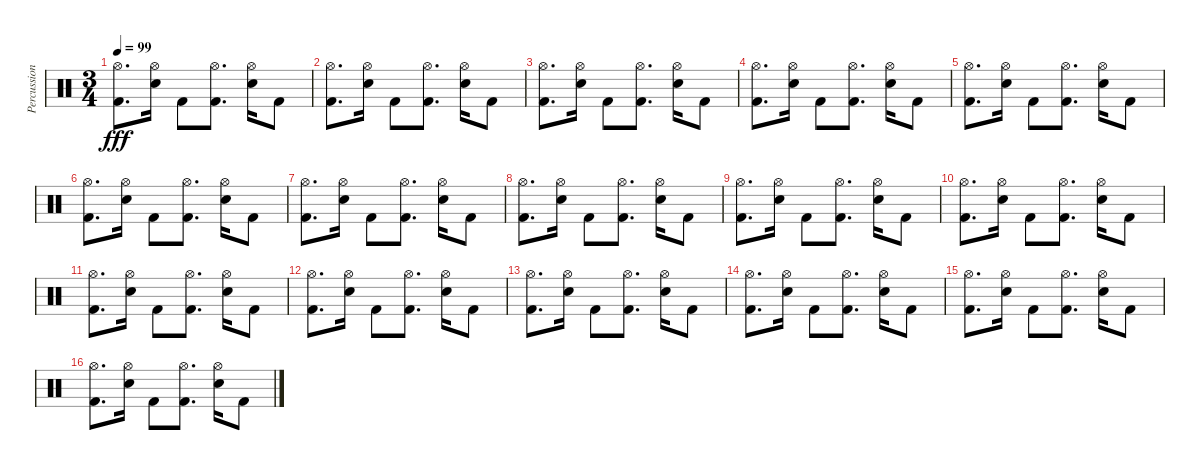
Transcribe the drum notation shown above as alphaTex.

\track ("Percussion" "Percussion") {instrument percussion}
\staff {score}
\articulation defaults
\ts (3 4)
\tempo 99
\clef neutral
\ks c
("Hi-Hat (open)" "Kick (hit) 2").8{d dy fff} ("Hi-Hat (open)" "Electric Snare (hit)").16 "Kick (hit) 2".8 ("Hi-Hat (open)" "Kick (hit) 2").8{d} ("Hi-Hat (open)" "Electric Snare (hit)").16 "Kick (hit) 2".8 |
("Hi-Hat (open)" "Kick (hit) 2").8{d} ("Hi-Hat (open)" "Electric Snare (hit)").16 "Kick (hit) 2".8 ("Hi-Hat (open)" "Kick (hit) 2").8{d} ("Hi-Hat (open)" "Electric Snare (hit)").16 "Kick (hit) 2".8 |
("Hi-Hat (open)" "Kick (hit) 2").8{d} ("Hi-Hat (open)" "Electric Snare (hit)").16 "Kick (hit) 2".8 ("Hi-Hat (open)" "Kick (hit) 2").8{d} ("Hi-Hat (open)" "Electric Snare (hit)").16 "Kick (hit) 2".8 |
("Hi-Hat (open)" "Kick (hit) 2").8{d} ("Hi-Hat (open)" "Electric Snare (hit)").16 "Kick (hit) 2".8 ("Hi-Hat (open)" "Kick (hit) 2").8{d} ("Hi-Hat (open)" "Electric Snare (hit)").16 "Kick (hit) 2".8 |
("Hi-Hat (open)" "Kick (hit) 2").8{d} ("Hi-Hat (open)" "Electric Snare (hit)").16 "Kick (hit) 2".8 ("Hi-Hat (open)" "Kick (hit) 2").8{d} ("Hi-Hat (open)" "Electric Snare (hit)").16 "Kick (hit) 2".8 |
("Hi-Hat (open)" "Kick (hit) 2").8{d} ("Hi-Hat (open)" "Electric Snare (hit)").16 "Kick (hit) 2".8 ("Hi-Hat (open)" "Kick (hit) 2").8{d} ("Hi-Hat (open)" "Electric Snare (hit)").16 "Kick (hit) 2".8 |
("Hi-Hat (open)" "Kick (hit) 2").8{d} ("Hi-Hat (open)" "Electric Snare (hit)").16 "Kick (hit) 2".8 ("Hi-Hat (open)" "Kick (hit) 2").8{d} ("Hi-Hat (open)" "Electric Snare (hit)").16 "Kick (hit) 2".8 |
("Hi-Hat (open)" "Kick (hit) 2").8{d} ("Hi-Hat (open)" "Electric Snare (hit)").16 "Kick (hit) 2".8 ("Hi-Hat (open)" "Kick (hit) 2").8{d} ("Hi-Hat (open)" "Electric Snare (hit)").16 "Kick (hit) 2".8 |
("Hi-Hat (open)" "Kick (hit) 2").8{d} ("Hi-Hat (open)" "Electric Snare (hit)").16 "Kick (hit) 2".8 ("Hi-Hat (open)" "Kick (hit) 2").8{d} ("Hi-Hat (open)" "Electric Snare (hit)").16 "Kick (hit) 2".8 |
("Hi-Hat (open)" "Kick (hit) 2").8{d} ("Hi-Hat (open)" "Electric Snare (hit)").16 "Kick (hit) 2".8 ("Hi-Hat (open)" "Kick (hit) 2").8{d} ("Hi-Hat (open)" "Electric Snare (hit)").16 "Kick (hit) 2".8 |
("Hi-Hat (open)" "Kick (hit) 2").8{d} ("Hi-Hat (open)" "Electric Snare (hit)").16 "Kick (hit) 2".8 ("Hi-Hat (open)" "Kick (hit) 2").8{d} ("Hi-Hat (open)" "Electric Snare (hit)").16 "Kick (hit) 2".8 |
("Hi-Hat (open)" "Kick (hit) 2").8{d} ("Hi-Hat (open)" "Electric Snare (hit)").16 "Kick (hit) 2".8 ("Hi-Hat (open)" "Kick (hit) 2").8{d} ("Hi-Hat (open)" "Electric Snare (hit)").16 "Kick (hit) 2".8 |
("Hi-Hat (open)" "Kick (hit) 2").8{d} ("Hi-Hat (open)" "Electric Snare (hit)").16 "Kick (hit) 2".8 ("Hi-Hat (open)" "Kick (hit) 2").8{d} ("Hi-Hat (open)" "Electric Snare (hit)").16 "Kick (hit) 2".8 |
("Hi-Hat (open)" "Kick (hit) 2").8{d} ("Hi-Hat (open)" "Electric Snare (hit)").16 "Kick (hit) 2".8 ("Hi-Hat (open)" "Kick (hit) 2").8{d} ("Hi-Hat (open)" "Electric Snare (hit)").16 "Kick (hit) 2".8 |
("Hi-Hat (open)" "Kick (hit) 2").8{d} ("Hi-Hat (open)" "Electric Snare (hit)").16 "Kick (hit) 2".8 ("Hi-Hat (open)" "Kick (hit) 2").8{d} ("Hi-Hat (open)" "Electric Snare (hit)").16 "Kick (hit) 2".8 |
("Hi-Hat (open)" "Kick (hit) 2").8{d} ("Hi-Hat (open)" "Electric Snare (hit)").16 "Kick (hit) 2".8 ("Hi-Hat (open)" "Kick (hit) 2").8{d} ("Hi-Hat (open)" "Electric Snare (hit)").16 "Kick (hit) 2".8
